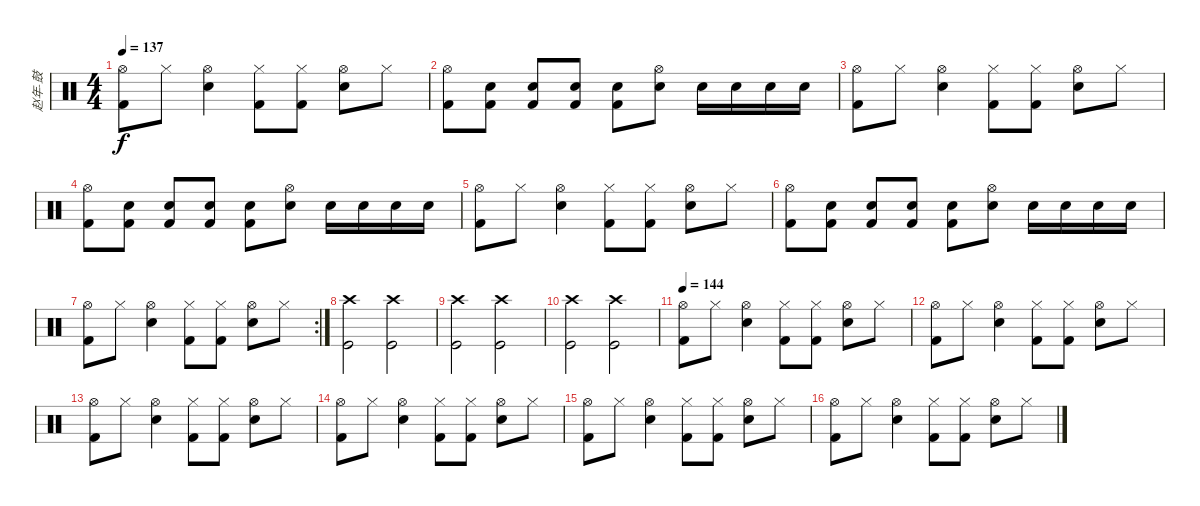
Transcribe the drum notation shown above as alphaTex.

\track ("赵年-鼓" "赵年-鼓") {instrument percussion}
\staff {score}
\articulation defaults
\ts (4 4)
\tempo 137
\clef neutral
\ks c
("Hi-Hat (open)" "Kick (hit) 2").8{dy f} "Hi-Hat (closed)".8 ("Electric Snare (hit)" "Hi-Hat (open)").4 ("Hi-Hat (closed)" "Kick (hit) 2").8 ("Hi-Hat (closed)" "Kick (hit) 2").8 ("Hi-Hat (open)" "Electric Snare (hit)").8 "Hi-Hat (closed)".8 |
("Hi-Hat (open)" "Kick (hit) 2").8 ("Electric Snare (hit)" "Kick (hit) 2").8 ("Electric Snare (hit)" "Kick (hit) 2").8 ("Electric Snare (hit)" "Kick (hit) 2").8 ("Electric Snare (hit)" "Kick (hit) 2").8 ("Hi-Hat (open)" "Electric Snare (hit)").8 "Electric Snare (hit)".16 "Electric Snare (hit)".16 "Electric Snare (hit)".16 "Electric Snare (hit)".16 |
("Hi-Hat (open)" "Kick (hit) 2").8 "Hi-Hat (closed)".8 ("Electric Snare (hit)" "Hi-Hat (open)").4 ("Hi-Hat (closed)" "Kick (hit) 2").8 ("Hi-Hat (closed)" "Kick (hit) 2").8 ("Hi-Hat (open)" "Electric Snare (hit)").8 "Hi-Hat (closed)".8 |
("Hi-Hat (open)" "Kick (hit) 2").8 ("Electric Snare (hit)" "Kick (hit) 2").8 ("Electric Snare (hit)" "Kick (hit) 2").8 ("Electric Snare (hit)" "Kick (hit) 2").8 ("Electric Snare (hit)" "Kick (hit) 2").8 ("Hi-Hat (open)" "Electric Snare (hit)").8 "Electric Snare (hit)".16 "Electric Snare (hit)".16 "Electric Snare (hit)".16 "Electric Snare (hit)".16 |
("Hi-Hat (open)" "Kick (hit) 2").8 "Hi-Hat (closed)".8 ("Electric Snare (hit)" "Hi-Hat (open)").4 ("Hi-Hat (closed)" "Kick (hit) 2").8 ("Hi-Hat (closed)" "Kick (hit) 2").8 ("Hi-Hat (open)" "Electric Snare (hit)").8 "Hi-Hat (closed)".8 |
("Hi-Hat (open)" "Kick (hit) 2").8 ("Electric Snare (hit)" "Kick (hit) 2").8 ("Electric Snare (hit)" "Kick (hit) 2").8 ("Electric Snare (hit)" "Kick (hit) 2").8 ("Electric Snare (hit)" "Kick (hit) 2").8 ("Hi-Hat (open)" "Electric Snare (hit)").8 "Electric Snare (hit)".16 "Electric Snare (hit)".16 "Electric Snare (hit)".16 "Electric Snare (hit)".16 |
\rc 2
("Hi-Hat (open)" "Kick (hit) 2").8 "Hi-Hat (closed)".8 ("Electric Snare (hit)" "Hi-Hat (open)").4 ("Hi-Hat (closed)" "Kick (hit) 2").8 ("Hi-Hat (closed)" "Kick (hit) 2").8 ("Hi-Hat (open)" "Electric Snare (hit)").8 "Hi-Hat (closed)".8 |
("Kick (hit)" "Crash high (hit)").2 ("Kick (hit)" "Crash high (hit)").2 |
("Kick (hit)" "Crash high (hit)").2 ("Kick (hit)" "Crash high (hit)").2 |
("Kick (hit)" "Crash high (hit)").2 ("Kick (hit)" "Crash high (hit)").2 |
\tempo 144
("Hi-Hat (open)" "Kick (hit) 2").8 "Hi-Hat (closed)".8 ("Electric Snare (hit)" "Hi-Hat (open)").4 ("Hi-Hat (closed)" "Kick (hit) 2").8 ("Hi-Hat (closed)" "Kick (hit) 2").8 ("Hi-Hat (open)" "Electric Snare (hit)").8 "Hi-Hat (closed)".8 |
("Hi-Hat (open)" "Kick (hit) 2").8 "Hi-Hat (closed)".8 ("Electric Snare (hit)" "Hi-Hat (open)").4 ("Hi-Hat (closed)" "Kick (hit) 2").8 ("Hi-Hat (closed)" "Kick (hit) 2").8 ("Hi-Hat (open)" "Electric Snare (hit)").8 "Hi-Hat (closed)".8 |
("Hi-Hat (open)" "Kick (hit) 2").8 "Hi-Hat (closed)".8 ("Electric Snare (hit)" "Hi-Hat (open)").4 ("Hi-Hat (closed)" "Kick (hit) 2").8 ("Hi-Hat (closed)" "Kick (hit) 2").8 ("Hi-Hat (open)" "Electric Snare (hit)").8 "Hi-Hat (closed)".8 |
("Hi-Hat (open)" "Kick (hit) 2").8 "Hi-Hat (closed)".8 ("Electric Snare (hit)" "Hi-Hat (open)").4 ("Hi-Hat (closed)" "Kick (hit) 2").8 ("Hi-Hat (closed)" "Kick (hit) 2").8 ("Hi-Hat (open)" "Electric Snare (hit)").8 "Hi-Hat (closed)".8 |
("Hi-Hat (open)" "Kick (hit) 2").8 "Hi-Hat (closed)".8 ("Electric Snare (hit)" "Hi-Hat (open)").4 ("Hi-Hat (closed)" "Kick (hit) 2").8 ("Hi-Hat (closed)" "Kick (hit) 2").8 ("Hi-Hat (open)" "Electric Snare (hit)").8 "Hi-Hat (closed)".8 |
("Hi-Hat (open)" "Kick (hit) 2").8 "Hi-Hat (closed)".8 ("Electric Snare (hit)" "Hi-Hat (open)").4 ("Hi-Hat (closed)" "Kick (hit) 2").8 ("Hi-Hat (closed)" "Kick (hit) 2").8 ("Hi-Hat (open)" "Electric Snare (hit)").8 "Hi-Hat (closed)".8
